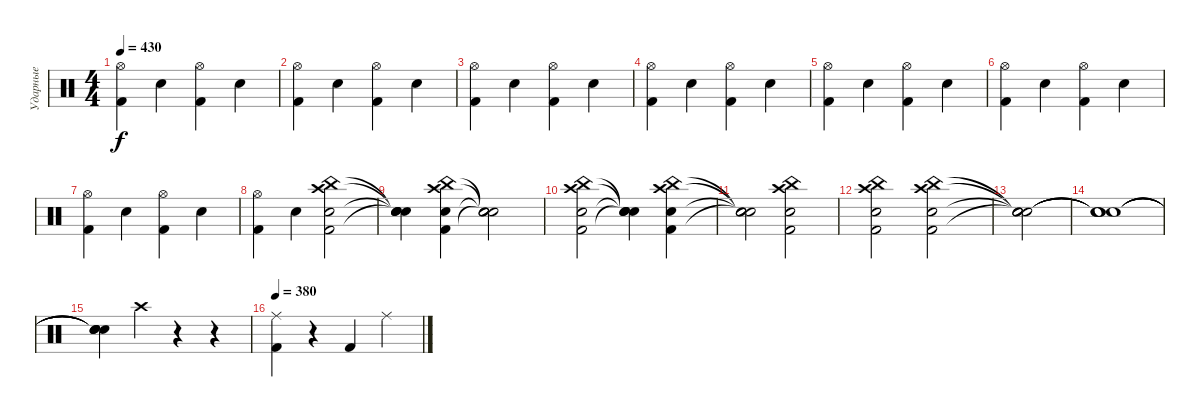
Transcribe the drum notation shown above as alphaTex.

\track ("Ударные" "Ударные") {instrument percussion}
\staff {score}
\articulation defaults
\ts (4 4)
\tempo 430
\clef neutral
\ks c
("Kick (hit) 2" "Hi-Hat (open)").4{dy f} "Electric Snare (hit)".4 ("Kick (hit) 2" "Hi-Hat (open)").4 "Electric Snare (hit)".4 |
("Kick (hit) 2" "Hi-Hat (open)").4 "Electric Snare (hit)".4 ("Kick (hit) 2" "Hi-Hat (open)").4 "Electric Snare (hit)".4 |
("Kick (hit) 2" "Hi-Hat (open)").4 "Electric Snare (hit)".4 ("Kick (hit) 2" "Hi-Hat (open)").4 "Electric Snare (hit)".4 |
("Kick (hit) 2" "Hi-Hat (open)").4 "Electric Snare (hit)".4 ("Kick (hit) 2" "Hi-Hat (open)").4 "Electric Snare (hit)".4 |
("Kick (hit) 2" "Hi-Hat (open)").4 "Electric Snare (hit)".4 ("Kick (hit) 2" "Hi-Hat (open)").4 "Electric Snare (hit)".4 |
("Kick (hit) 2" "Hi-Hat (open)").4 "Electric Snare (hit)".4 ("Kick (hit) 2" "Hi-Hat (open)").4 "Electric Snare (hit)".4 |
("Kick (hit) 2" "Hi-Hat (open)").4 "Electric Snare (hit)".4 ("Kick (hit) 2" "Hi-Hat (open)").4 "Electric Snare (hit)".4 |
("Kick (hit) 2" "Hi-Hat (open)").4 "Electric Snare (hit)".4 ("Kick (hit) 2" "Electric Snare (hit)" "Crash high (hit)" "China (hit)").2 |
("Snare (hit)"{t} "Snare (hit)"{t} "Snare (hit)"{t} "Snare (hit)"{t}).4 ("Kick (hit) 2" "Electric Snare (hit)" "Crash high (hit)" "China (hit)").4 ("Snare (hit)"{t} "Snare (hit)"{t} "Snare (hit)"{t} "Snare (hit)"{t}).2 |
("Kick (hit) 2" "Electric Snare (hit)" "Crash high (hit)" "China (hit)").2 ("Snare (hit)"{t} "Snare (hit)"{t} "Snare (hit)"{t} "Snare (hit)"{t}).4 ("Kick (hit) 2" "Electric Snare (hit)" "Crash high (hit)" "China (hit)").4 |
("Snare (hit)"{t} "Snare (hit)"{t} "Snare (hit)"{t} "Snare (hit)"{t}).2 ("Kick (hit) 2" "Electric Snare (hit)" "Crash high (hit)" "China (hit)").2 |
("China (hit)" "Crash high (hit)" "Kick (hit) 2" "Electric Snare (hit)").2 ("Kick (hit) 2" "Electric Snare (hit)" "Crash high (hit)" "China (hit)").2 |
("Snare (hit)"{t} "Snare (hit)"{t} "Snare (hit)"{t} "Snare (hit)"{t}).2 |
("Snare (hit)"{t} "Snare (hit)"{t} "Snare (hit)"{t} "Snare (hit)"{t}).1 |
("Snare (hit)"{t} "Snare (hit)"{t} "Snare (hit)"{t} "Snare (hit)"{t}).4 "Crash high (hit)".4 r.4 r.4 |
\tempo 380
("Kick (hit) 2" "Ride (middle)").4 r.4 "Kick (hit) 2".4 "Ride (middle)".4
